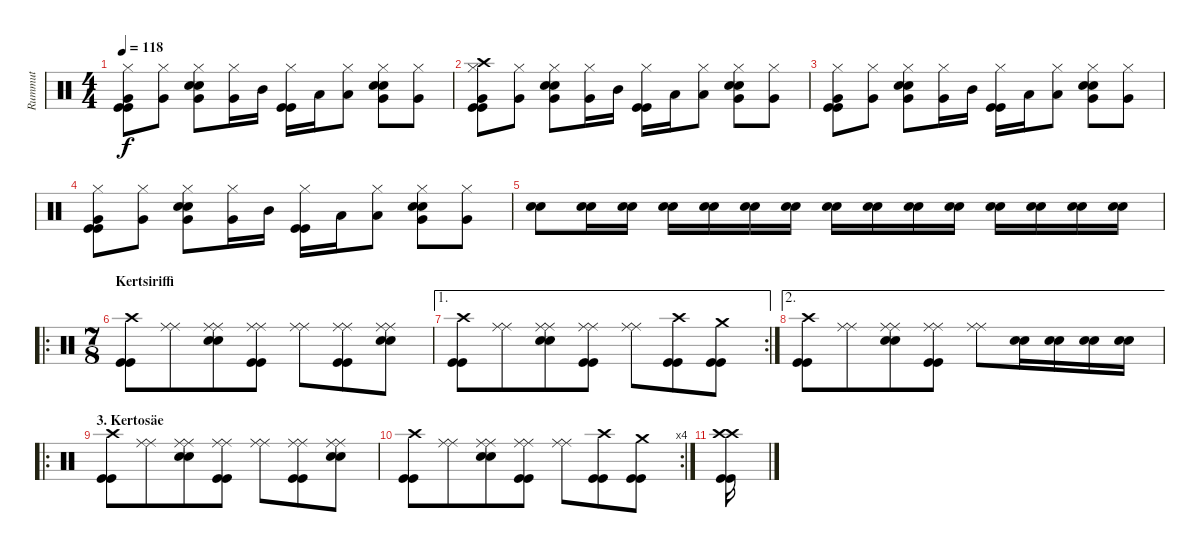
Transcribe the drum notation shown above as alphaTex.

\track ("Rummut" "Rummut") {instrument percussion}
\staff {score}
\articulation defaults
\ts (4 4)
\tempo 118
\clef neutral
\ks c
("Hi-Hat (closed)" "Very Low Tom (hit)" "Kick (hit)" "Kick (hit)").8{dy f} ("Hi-Hat (closed)" "Very Low Tom (hit)").8 ("Hi-Hat (closed)" "Very Low Tom (hit)" "Snare (hit) 2" "Snare (hit) 2").8 ("Hi-Hat (closed)" "Very Low Tom (hit)").16 "Mid Tom (hit)".16 ("Hi-Hat (closed)" "Kick (hit)" "Kick (hit)").16 "Low Tom (hit)".16 ("Hi-Hat (closed)" "Low Tom (hit)").8 ("Hi-Hat (closed)" "Very Low Tom (hit)" "Snare (hit) 2" "Snare (hit) 2").8 ("Hi-Hat (closed)" "Very Low Tom (hit)").8 |
("Crash high (hit)" "Hi-Hat (closed)" "Very Low Tom (hit)" "Kick (hit)" "Kick (hit)").8 ("Hi-Hat (closed)" "Very Low Tom (hit)").8 ("Hi-Hat (closed)" "Very Low Tom (hit)" "Snare (hit) 2" "Snare (hit) 2").8 ("Hi-Hat (closed)" "Very Low Tom (hit)").16 "Mid Tom (hit)".16 ("Hi-Hat (closed)" "Kick (hit)" "Kick (hit)").16 "Low Tom (hit)".16 ("Hi-Hat (closed)" "Low Tom (hit)").8 ("Hi-Hat (closed)" "Very Low Tom (hit)" "Snare (hit) 2" "Snare (hit) 2").8 ("Hi-Hat (closed)" "Very Low Tom (hit)").8 |
("Hi-Hat (closed)" "Very Low Tom (hit)" "Kick (hit)" "Kick (hit)").8 ("Hi-Hat (closed)" "Very Low Tom (hit)").8 ("Hi-Hat (closed)" "Very Low Tom (hit)" "Snare (hit) 2" "Snare (hit) 2").8 ("Hi-Hat (closed)" "Very Low Tom (hit)").16 "Mid Tom (hit)".16 ("Hi-Hat (closed)" "Kick (hit)" "Kick (hit)").16 "Low Tom (hit)".16 ("Hi-Hat (closed)" "Low Tom (hit)").8 ("Hi-Hat (closed)" "Very Low Tom (hit)" "Snare (hit) 2" "Snare (hit) 2").8 ("Hi-Hat (closed)" "Very Low Tom (hit)").8 |
("Hi-Hat (closed)" "Very Low Tom (hit)" "Kick (hit)" "Kick (hit)").8 ("Hi-Hat (closed)" "Very Low Tom (hit)").8 ("Hi-Hat (closed)" "Very Low Tom (hit)" "Snare (hit) 2" "Snare (hit) 2").8 ("Hi-Hat (closed)" "Very Low Tom (hit)").16 "Mid Tom (hit)".16 ("Hi-Hat (closed)" "Kick (hit)" "Kick (hit)").16 "Low Tom (hit)".16 ("Hi-Hat (closed)" "Low Tom (hit)").8 ("Hi-Hat (closed)" "Very Low Tom (hit)" "Snare (hit) 2" "Snare (hit) 2").8 ("Hi-Hat (closed)" "Very Low Tom (hit)").8 |
("Snare (hit) 2" "Snare (hit) 2").8 ("Snare (hit) 2" "Snare (hit) 2").16 ("Snare (hit) 2" "Snare (hit) 2").16 ("Snare (hit) 2" "Snare (hit) 2").16 ("Snare (hit) 2" "Snare (hit) 2").16 ("Snare (hit) 2" "Snare (hit) 2").16 ("Snare (hit) 2" "Snare (hit) 2").16 ("Snare (hit) 2" "Snare (hit) 2").16 ("Snare (hit) 2" "Snare (hit) 2").16 ("Snare (hit) 2" "Snare (hit) 2").16 ("Snare (hit) 2" "Snare (hit) 2").16 ("Snare (hit) 2" "Snare (hit) 2").16 ("Snare (hit) 2" "Snare (hit) 2").16 ("Snare (hit) 2" "Snare (hit) 2").16 ("Snare (hit) 2" "Snare (hit) 2").16 |
\ro
\ts (7 8)
\section ("" "Kertsiriffi")
("Crash high (hit)" "Kick (hit)" "Kick (hit)").8 ("Ride (middle)" "Ride (middle)").8 ("Ride (middle)" "Ride (middle)" "Snare (hit) 2" "Snare (hit) 2").8 ("Ride (middle)" "Ride (middle)" "Kick (hit)" "Kick (hit)").8 ("Ride (middle)" "Ride (middle)").8 ("Ride (middle)" "Ride (middle)" "Kick (hit)" "Kick (hit)").8 ("Ride (middle)" "Ride (middle)" "Snare (hit) 2" "Snare (hit) 2").8 |
\ae 1
\rc 2
("Crash high (hit)" "Kick (hit)" "Kick (hit)").8 ("Ride (middle)" "Ride (middle)").8 ("Ride (middle)" "Ride (middle)" "Snare (hit) 2" "Snare (hit) 2").8 ("Ride (middle)" "Ride (middle)" "Kick (hit)" "Kick (hit)").8 ("Ride (middle)" "Ride (middle)").8 ("Crash high (hit)" "Kick (hit)" "Kick (hit)").8 ("Crash medium (hit)" "Kick (hit)" "Kick (hit)").8 |
\ae 2
("Crash high (hit)" "Kick (hit)" "Kick (hit)").8 ("Ride (middle)" "Ride (middle)").8 ("Ride (middle)" "Ride (middle)" "Snare (hit) 2" "Snare (hit) 2").8 ("Ride (middle)" "Ride (middle)" "Kick (hit)" "Kick (hit)").8 ("Ride (middle)" "Ride (middle)").8 ("Snare (hit) 2" "Snare (hit) 2").16 ("Snare (hit) 2" "Snare (hit) 2").16 ("Snare (hit) 2" "Snare (hit) 2").16 ("Snare (hit) 2" "Snare (hit) 2").16 |
\ro
\section ("" "3. Kertosäe")
("Crash high (hit)" "Kick (hit)" "Kick (hit)").8 ("Ride (middle)" "Ride (middle)").8 ("Ride (middle)" "Ride (middle)" "Snare (hit) 2" "Snare (hit) 2").8 ("Ride (middle)" "Ride (middle)" "Kick (hit)" "Kick (hit)").8 ("Ride (middle)" "Ride (middle)").8 ("Ride (middle)" "Ride (middle)" "Kick (hit)" "Kick (hit)").8 ("Ride (middle)" "Ride (middle)" "Snare (hit) 2" "Snare (hit) 2").8 |
\rc 4
("Crash high (hit)" "Kick (hit)" "Kick (hit)").8 ("Ride (middle)" "Ride (middle)").8 ("Ride (middle)" "Ride (middle)" "Snare (hit) 2" "Snare (hit) 2").8 ("Ride (middle)" "Ride (middle)" "Kick (hit)" "Kick (hit)").8 ("Ride (middle)" "Ride (middle)").8 ("Crash high (hit)" "Kick (hit)" "Kick (hit)").8 ("Crash medium (hit)" "Kick (hit)" "Kick (hit)").8 |
("Crash high (hit)" "Crash high (hit)" "Kick (hit)" "Kick (hit)").16
